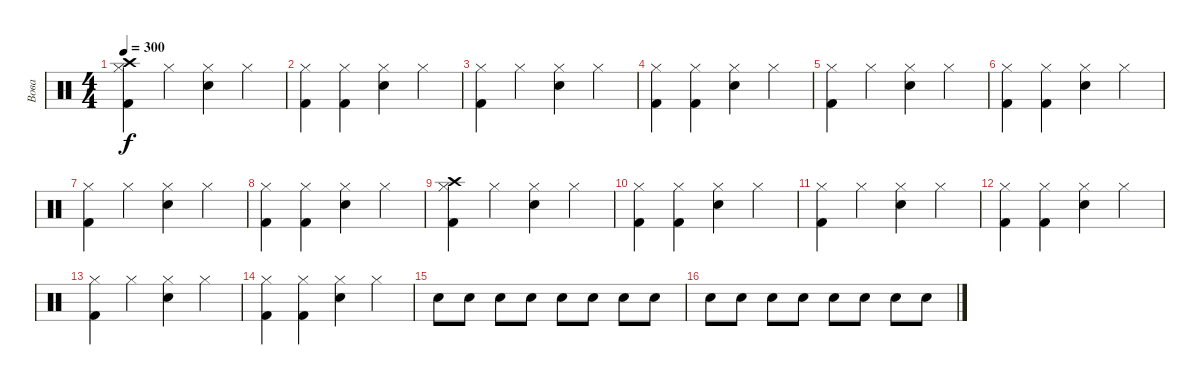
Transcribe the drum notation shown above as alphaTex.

\track ("Вова" "Вова") {instrument percussion}
\staff {score}
\articulation defaults
\ts (4 4)
\tempo 300
\clef neutral
\ks c
("Hi-Hat (closed)" "Crash high (hit)" "Kick (hit) 2").4{dy f} "Hi-Hat (closed)".4 ("Hi-Hat (closed)" "Snare (hit) 2").4 "Hi-Hat (closed)".4 |
("Hi-Hat (closed)" "Kick (hit) 2").4 ("Hi-Hat (closed)" "Kick (hit) 2").4 ("Hi-Hat (closed)" "Snare (hit) 2").4 "Hi-Hat (closed)".4 |
("Hi-Hat (closed)" "Kick (hit) 2").4 "Hi-Hat (closed)".4 ("Hi-Hat (closed)" "Snare (hit) 2").4 "Hi-Hat (closed)".4 |
("Hi-Hat (closed)" "Kick (hit) 2").4 ("Hi-Hat (closed)" "Kick (hit) 2").4 ("Hi-Hat (closed)" "Snare (hit) 2").4 "Hi-Hat (closed)".4 |
("Hi-Hat (closed)" "Kick (hit) 2").4 "Hi-Hat (closed)".4 ("Hi-Hat (closed)" "Snare (hit) 2").4 "Hi-Hat (closed)".4 |
("Hi-Hat (closed)" "Kick (hit) 2").4 ("Hi-Hat (closed)" "Kick (hit) 2").4 ("Hi-Hat (closed)" "Snare (hit) 2").4 "Hi-Hat (closed)".4 |
("Hi-Hat (closed)" "Kick (hit) 2").4 "Hi-Hat (closed)".4 ("Hi-Hat (closed)" "Snare (hit) 2").4 "Hi-Hat (closed)".4 |
("Hi-Hat (closed)" "Kick (hit) 2").4 ("Hi-Hat (closed)" "Kick (hit) 2").4 ("Hi-Hat (closed)" "Snare (hit) 2").4 "Hi-Hat (closed)".4 |
("Hi-Hat (closed)" "Crash high (hit)" "Kick (hit) 2").4 "Hi-Hat (closed)".4 ("Hi-Hat (closed)" "Snare (hit) 2").4 "Hi-Hat (closed)".4 |
("Hi-Hat (closed)" "Kick (hit) 2").4 ("Hi-Hat (closed)" "Kick (hit) 2").4 ("Hi-Hat (closed)" "Snare (hit) 2").4 "Hi-Hat (closed)".4 |
("Hi-Hat (closed)" "Kick (hit) 2").4 "Hi-Hat (closed)".4 ("Hi-Hat (closed)" "Snare (hit) 2").4 "Hi-Hat (closed)".4 |
("Hi-Hat (closed)" "Kick (hit) 2").4 ("Hi-Hat (closed)" "Kick (hit) 2").4 ("Hi-Hat (closed)" "Snare (hit) 2").4 "Hi-Hat (closed)".4 |
("Hi-Hat (closed)" "Kick (hit) 2").4 "Hi-Hat (closed)".4 ("Hi-Hat (closed)" "Snare (hit) 2").4 "Hi-Hat (closed)".4 |
("Hi-Hat (closed)" "Kick (hit) 2").4 ("Hi-Hat (closed)" "Kick (hit) 2").4 ("Hi-Hat (closed)" "Snare (hit) 2").4 "Hi-Hat (closed)".4 |
"Snare (hit) 2".8 "Snare (hit) 2".8 "Snare (hit) 2".8 "Snare (hit) 2".8 "Snare (hit) 2".8 "Snare (hit) 2".8 "Snare (hit) 2".8 "Snare (hit) 2".8 |
"Snare (hit) 2".8 "Snare (hit) 2".8 "Snare (hit) 2".8 "Snare (hit) 2".8 "Snare (hit) 2".8 "Snare (hit) 2".8 "Snare (hit) 2".8 "Snare (hit) 2".8
